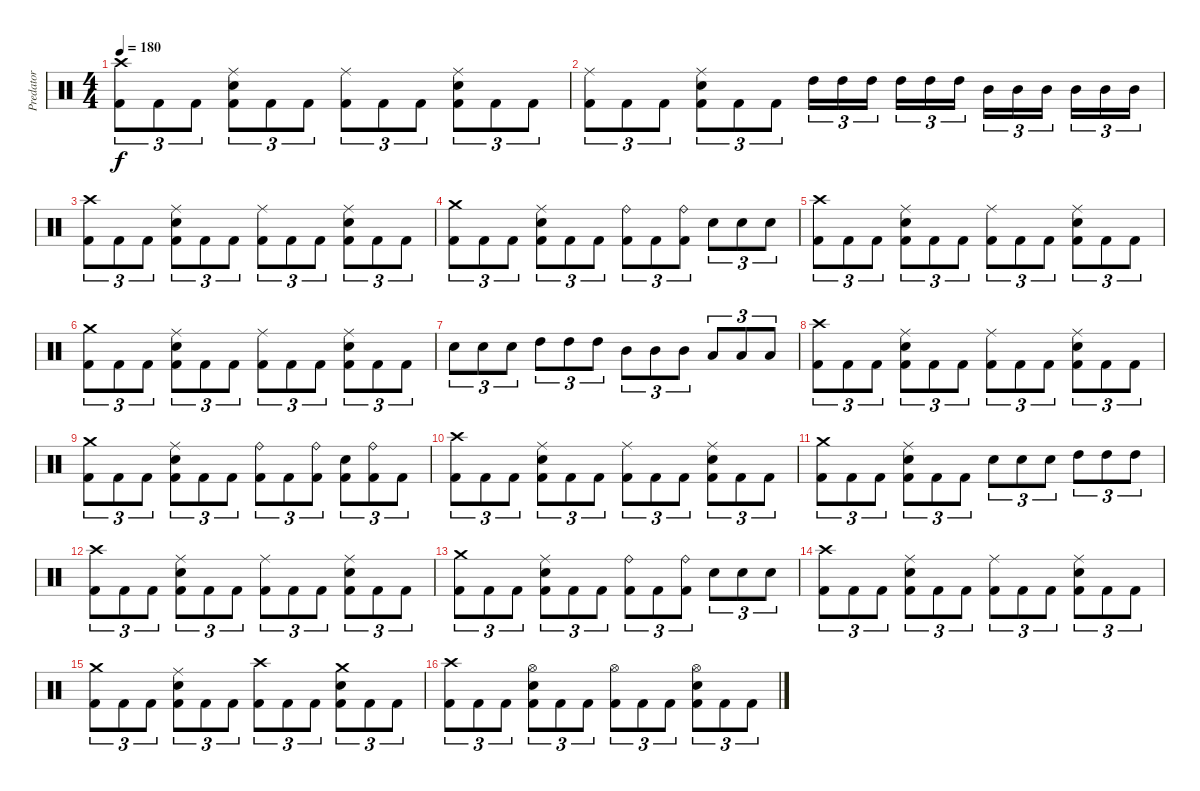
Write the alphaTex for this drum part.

\track ("Predator" "Predator") {instrument percussion}
\staff {score}
\articulation defaults
\ts (4 4)
\tempo 180
\clef neutral
\ks c
("Kick (hit) 2" "Crash high (hit)").8{tu (3 2) dy f} "Kick (hit) 2".8{tu (3 2)} "Kick (hit) 2".8{tu (3 2)} ("Kick (hit) 2" "Electric Snare (hit)" "Ride (middle)").8{tu (3 2)} "Kick (hit) 2".8{tu (3 2)} "Kick (hit) 2".8{tu (3 2)} ("Kick (hit) 2" "Ride (middle)").8{tu (3 2)} "Kick (hit) 2".8{tu (3 2)} "Kick (hit) 2".8{tu (3 2)} ("Kick (hit) 2" "Electric Snare (hit)" "Ride (middle)").8{tu (3 2)} "Kick (hit) 2".8{tu (3 2)} "Kick (hit) 2".8{tu (3 2)} |
("Kick (hit) 2" "Ride (middle)").8{tu (3 2)} "Kick (hit) 2".8{tu (3 2)} "Kick (hit) 2".8{tu (3 2)} ("Kick (hit) 2" "Electric Snare (hit)" "Ride (middle)").8{tu (3 2)} "Kick (hit) 2".8{tu (3 2)} "Kick (hit) 2".8{tu (3 2)} "High Tom (hit)".16{tu (3 2)} "High Tom (hit)".16{tu (3 2)} "High Tom (hit)".16{tu (3 2)} "High Tom (hit)".16{tu (3 2)} "High Tom (hit)".16{tu (3 2)} "High Tom (hit)".16{tu (3 2)} "Mid Tom (hit)".16{tu (3 2)} "Mid Tom (hit)".16{tu (3 2)} "Mid Tom (hit)".16{tu (3 2)} "Mid Tom (hit)".16{tu (3 2)} "Mid Tom (hit)".16{tu (3 2)} "Mid Tom (hit)".16{tu (3 2)} |
("Kick (hit) 2" "Crash high (hit)").8{tu (3 2)} "Kick (hit) 2".8{tu (3 2)} "Kick (hit) 2".8{tu (3 2)} ("Kick (hit) 2" "Electric Snare (hit)" "Ride (middle)").8{tu (3 2)} "Kick (hit) 2".8{tu (3 2)} "Kick (hit) 2".8{tu (3 2)} ("Kick (hit) 2" "Ride (middle)").8{tu (3 2)} "Kick (hit) 2".8{tu (3 2)} "Kick (hit) 2".8{tu (3 2)} ("Kick (hit) 2" "Electric Snare (hit)" "Ride (middle)").8{tu (3 2)} "Kick (hit) 2".8{tu (3 2)} "Kick (hit) 2".8{tu (3 2)} |
("Kick (hit) 2" "Crash medium (hit)").8{tu (3 2)} "Kick (hit) 2".8{tu (3 2)} "Kick (hit) 2".8{tu (3 2)} ("Kick (hit) 2" "Electric Snare (hit)" "Ride (middle)").8{tu (3 2)} "Kick (hit) 2".8{tu (3 2)} "Kick (hit) 2".8{tu (3 2)} ("Kick (hit) 2" "Ride (bell)").8{tu (3 2)} "Kick (hit) 2".8{tu (3 2)} ("Kick (hit) 2" "Ride (bell)").8{tu (3 2)} "Electric Snare (hit)".8{tu (3 2)} "Electric Snare (hit)".8{tu (3 2)} "Electric Snare (hit)".8{tu (3 2)} |
("Kick (hit) 2" "Crash high (hit)").8{tu (3 2)} "Kick (hit) 2".8{tu (3 2)} "Kick (hit) 2".8{tu (3 2)} ("Kick (hit) 2" "Electric Snare (hit)" "Ride (middle)").8{tu (3 2)} "Kick (hit) 2".8{tu (3 2)} "Kick (hit) 2".8{tu (3 2)} ("Kick (hit) 2" "Ride (middle)").8{tu (3 2)} "Kick (hit) 2".8{tu (3 2)} "Kick (hit) 2".8{tu (3 2)} ("Kick (hit) 2" "Electric Snare (hit)" "Ride (middle)").8{tu (3 2)} "Kick (hit) 2".8{tu (3 2)} "Kick (hit) 2".8{tu (3 2)} |
("Kick (hit) 2" "Crash medium (hit)").8{tu (3 2)} "Kick (hit) 2".8{tu (3 2)} "Kick (hit) 2".8{tu (3 2)} ("Kick (hit) 2" "Electric Snare (hit)" "Ride (middle)").8{tu (3 2)} "Kick (hit) 2".8{tu (3 2)} "Kick (hit) 2".8{tu (3 2)} ("Kick (hit) 2" "Ride (middle)").8{tu (3 2)} "Kick (hit) 2".8{tu (3 2)} "Kick (hit) 2".8{tu (3 2)} ("Kick (hit) 2" "Electric Snare (hit)" "Ride (middle)").8{tu (3 2)} "Kick (hit) 2".8{tu (3 2)} "Kick (hit) 2".8{tu (3 2)} |
"Electric Snare (hit)".8{tu (3 2)} "Electric Snare (hit)".8{tu (3 2)} "Electric Snare (hit)".8{tu (3 2)} "High Tom (hit)".8{tu (3 2)} "High Tom (hit)".8{tu (3 2)} "High Tom (hit)".8{tu (3 2)} "Mid Tom (hit)".8{tu (3 2)} "Mid Tom (hit)".8{tu (3 2)} "Mid Tom (hit)".8{tu (3 2)} "Low Tom (hit)".8{tu (3 2)} "Low Tom (hit)".8{tu (3 2)} "Low Tom (hit)".8{tu (3 2)} |
("Kick (hit) 2" "Crash high (hit)").8{tu (3 2)} "Kick (hit) 2".8{tu (3 2)} "Kick (hit) 2".8{tu (3 2)} ("Kick (hit) 2" "Electric Snare (hit)" "Ride (middle)").8{tu (3 2)} "Kick (hit) 2".8{tu (3 2)} "Kick (hit) 2".8{tu (3 2)} ("Kick (hit) 2" "Ride (middle)").8{tu (3 2)} "Kick (hit) 2".8{tu (3 2)} "Kick (hit) 2".8{tu (3 2)} ("Kick (hit) 2" "Electric Snare (hit)" "Ride (middle)").8{tu (3 2)} "Kick (hit) 2".8{tu (3 2)} "Kick (hit) 2".8{tu (3 2)} |
("Kick (hit) 2" "Crash medium (hit)").8{tu (3 2)} "Kick (hit) 2".8{tu (3 2)} "Kick (hit) 2".8{tu (3 2)} ("Kick (hit) 2" "Electric Snare (hit)" "Ride (middle)").8{tu (3 2)} "Kick (hit) 2".8{tu (3 2)} "Kick (hit) 2".8{tu (3 2)} ("Kick (hit) 2" "Ride (bell)").8{tu (3 2)} "Kick (hit) 2".8{tu (3 2)} ("Kick (hit) 2" "Ride (bell)").8{tu (3 2)} ("Kick (hit) 2" "Electric Snare (hit)").8{tu (3 2)} ("Kick (hit) 2" "Ride (bell)").8{tu (3 2)} "Kick (hit) 2".8{tu (3 2)} |
("Kick (hit) 2" "Crash high (hit)").8{tu (3 2)} "Kick (hit) 2".8{tu (3 2)} "Kick (hit) 2".8{tu (3 2)} ("Kick (hit) 2" "Electric Snare (hit)" "Ride (middle)").8{tu (3 2)} "Kick (hit) 2".8{tu (3 2)} "Kick (hit) 2".8{tu (3 2)} ("Kick (hit) 2" "Ride (middle)").8{tu (3 2)} "Kick (hit) 2".8{tu (3 2)} "Kick (hit) 2".8{tu (3 2)} ("Kick (hit) 2" "Electric Snare (hit)" "Ride (middle)").8{tu (3 2)} "Kick (hit) 2".8{tu (3 2)} "Kick (hit) 2".8{tu (3 2)} |
("Kick (hit) 2" "Crash medium (hit)").8{tu (3 2)} "Kick (hit) 2".8{tu (3 2)} "Kick (hit) 2".8{tu (3 2)} ("Kick (hit) 2" "Electric Snare (hit)" "Ride (middle)").8{tu (3 2)} "Kick (hit) 2".8{tu (3 2)} "Kick (hit) 2".8{tu (3 2)} "Electric Snare (hit)".8{tu (3 2)} "Electric Snare (hit)".8{tu (3 2)} "Electric Snare (hit)".8{tu (3 2)} "High Tom (hit)".8{tu (3 2)} "High Tom (hit)".8{tu (3 2)} "High Tom (hit)".8{tu (3 2)} |
("Kick (hit) 2" "Crash high (hit)").8{tu (3 2)} "Kick (hit) 2".8{tu (3 2)} "Kick (hit) 2".8{tu (3 2)} ("Kick (hit) 2" "Electric Snare (hit)" "Ride (middle)").8{tu (3 2)} "Kick (hit) 2".8{tu (3 2)} "Kick (hit) 2".8{tu (3 2)} ("Kick (hit) 2" "Ride (middle)").8{tu (3 2)} "Kick (hit) 2".8{tu (3 2)} "Kick (hit) 2".8{tu (3 2)} ("Kick (hit) 2" "Electric Snare (hit)" "Ride (middle)").8{tu (3 2)} "Kick (hit) 2".8{tu (3 2)} "Kick (hit) 2".8{tu (3 2)} |
("Kick (hit) 2" "Crash medium (hit)").8{tu (3 2)} "Kick (hit) 2".8{tu (3 2)} "Kick (hit) 2".8{tu (3 2)} ("Kick (hit) 2" "Electric Snare (hit)" "Ride (middle)").8{tu (3 2)} "Kick (hit) 2".8{tu (3 2)} "Kick (hit) 2".8{tu (3 2)} ("Kick (hit) 2" "Ride (bell)").8{tu (3 2)} "Kick (hit) 2".8{tu (3 2)} ("Kick (hit) 2" "Ride (bell)").8{tu (3 2)} "Electric Snare (hit)".8{tu (3 2)} "Electric Snare (hit)".8{tu (3 2)} "Electric Snare (hit)".8{tu (3 2)} |
("Kick (hit) 2" "Crash high (hit)").8{tu (3 2)} "Kick (hit) 2".8{tu (3 2)} "Kick (hit) 2".8{tu (3 2)} ("Kick (hit) 2" "Electric Snare (hit)" "Ride (middle)").8{tu (3 2)} "Kick (hit) 2".8{tu (3 2)} "Kick (hit) 2".8{tu (3 2)} ("Kick (hit) 2" "Ride (middle)").8{tu (3 2)} "Kick (hit) 2".8{tu (3 2)} "Kick (hit) 2".8{tu (3 2)} ("Kick (hit) 2" "Electric Snare (hit)" "Ride (middle)").8{tu (3 2)} "Kick (hit) 2".8{tu (3 2)} "Kick (hit) 2".8{tu (3 2)} |
("Kick (hit) 2" "Crash medium (hit)").8{tu (3 2)} "Kick (hit) 2".8{tu (3 2)} "Kick (hit) 2".8{tu (3 2)} ("Kick (hit) 2" "Electric Snare (hit)" "Ride (middle)").8{tu (3 2)} "Kick (hit) 2".8{tu (3 2)} "Kick (hit) 2".8{tu (3 2)} ("Kick (hit) 2" "Crash high (hit)").8{tu (3 2)} "Kick (hit) 2".8{tu (3 2)} "Kick (hit) 2".8{tu (3 2)} ("Kick (hit) 2" "Electric Snare (hit)" "Crash medium (hit)").8{tu (3 2)} "Kick (hit) 2".8{tu (3 2)} "Kick (hit) 2".8{tu (3 2)} |
("Kick (hit) 2" "Crash high (hit)").8{tu (3 2)} "Kick (hit) 2".8{tu (3 2)} "Kick (hit) 2".8{tu (3 2)} ("Kick (hit) 2" "Electric Snare (hit)" "Hi-Hat (open)").8{tu (3 2)} "Kick (hit) 2".8{tu (3 2)} "Kick (hit) 2".8{tu (3 2)} ("Kick (hit) 2" "Hi-Hat (open)").8{tu (3 2)} "Kick (hit) 2".8{tu (3 2)} "Kick (hit) 2".8{tu (3 2)} ("Kick (hit) 2" "Electric Snare (hit)" "Hi-Hat (open)").8{tu (3 2)} "Kick (hit) 2".8{tu (3 2)} "Kick (hit) 2".8{tu (3 2)}
